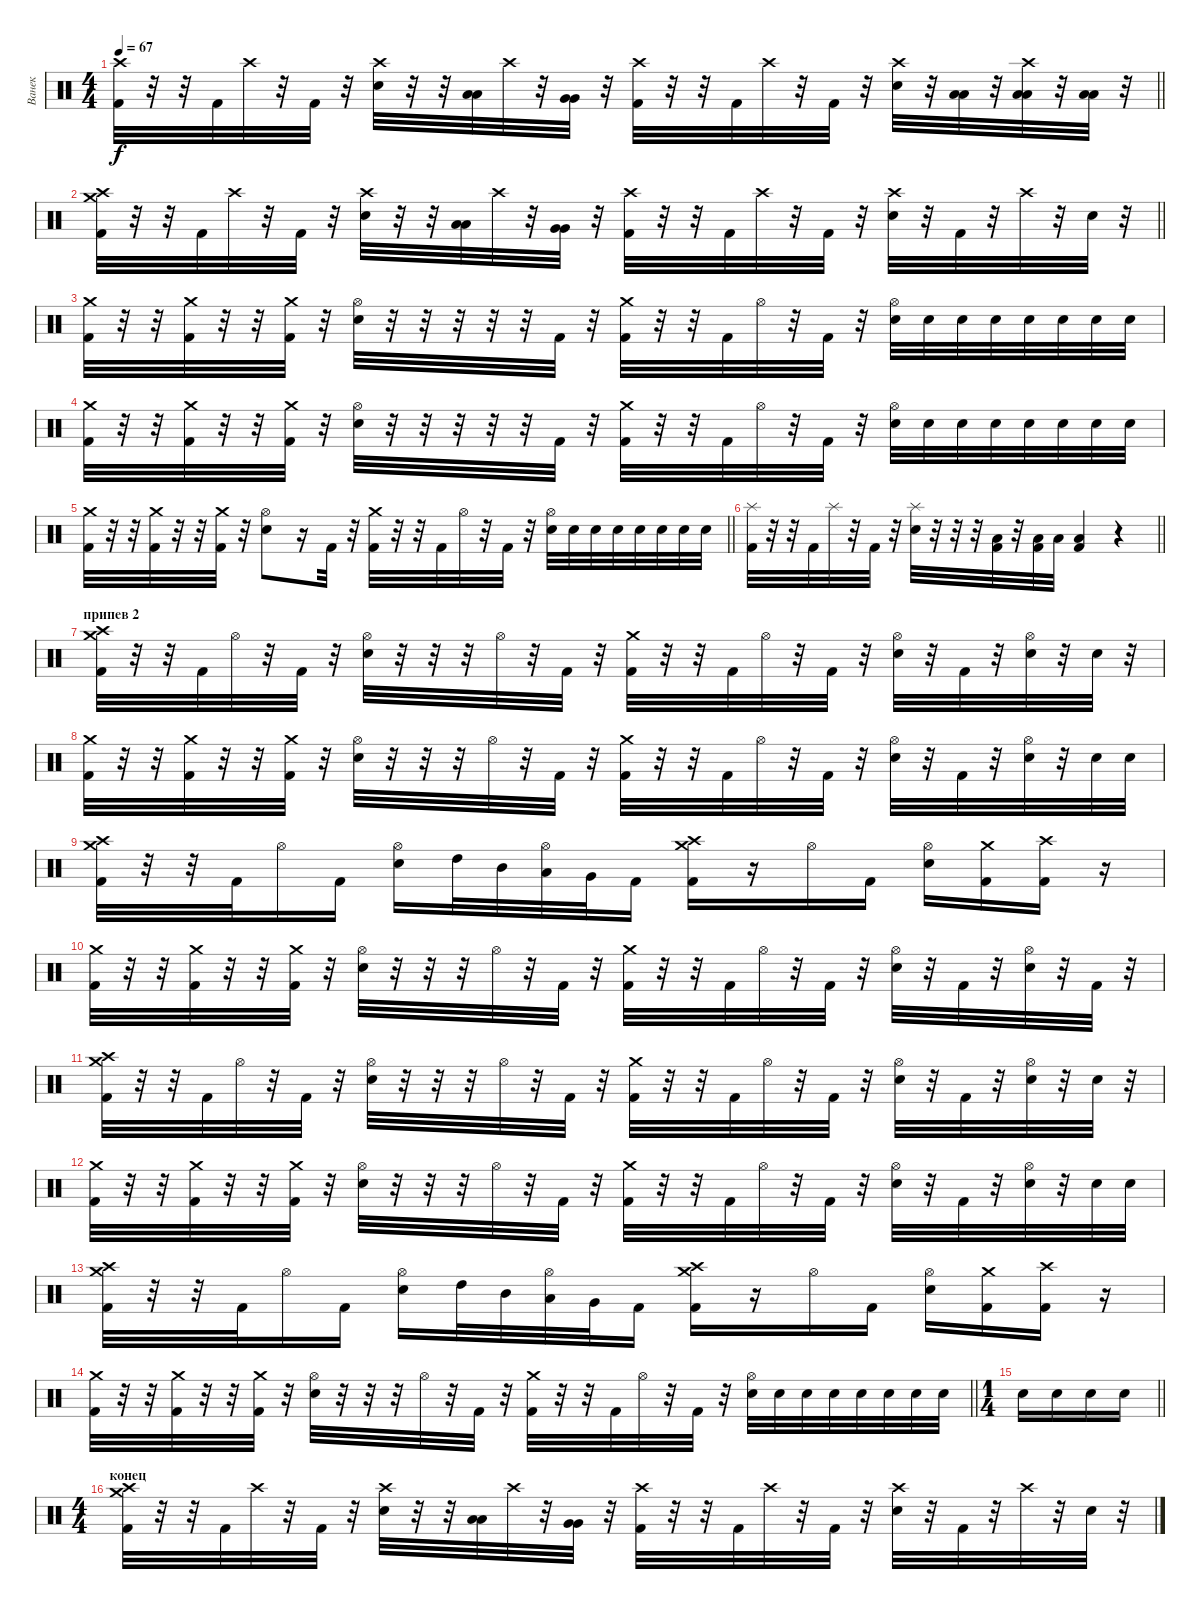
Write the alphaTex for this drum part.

\track ("Ванек" "Ванек") {instrument percussion}
\staff {score}
\articulation defaults
\ts (4 4)
\tempo 67
\clef neutral
\barLineRight lightlight
\ks c
("Crash high (hit)" "Kick (hit) 2").32{dy f} r.32 r.32 "Kick (hit) 2".32 "Crash high (hit)".32 r.32 "Kick (hit) 2".32 r.32 ("Crash high (hit)" "Snare (hit) 2").32 r.32 r.32 ("Low Tom (hit)" "Low Tom (hit)").32 "Crash high (hit)".32 r.32 ("Very Low Tom (hit)" "Very Low Tom (hit)").32 r.32 ("Crash high (hit)" "Kick (hit) 2").32 r.32 r.32 "Kick (hit) 2".32 "Crash high (hit)".32 r.32 "Kick (hit) 2".32 r.32 ("Crash high (hit)" "Snare (hit) 2").32 r.32 ("Low Tom (hit)" "Low Tom (hit)").32 r.32 ("Crash high (hit)" "Low Tom (hit)" "Low Tom (hit)").32 r.32 ("Low Tom (hit)" "Low Tom (hit)").32 r.32 |
\barLineRight lightlight
("Crash high (hit)" "Crash medium (hit)" "Kick (hit) 2").32 r.32 r.32 "Kick (hit) 2".32 "Crash high (hit)".32 r.32 "Kick (hit) 2".32 r.32 ("Crash high (hit)" "Snare (hit) 2").32 r.32 r.32 ("Low Tom (hit)" "Low Tom (hit)").32 "Crash high (hit)".32 r.32 ("Very Low Tom (hit)" "Very Low Tom (hit)").32 r.32 ("Crash high (hit)" "Kick (hit) 2").32 r.32 r.32 "Kick (hit) 2".32 "Crash high (hit)".32 r.32 "Kick (hit) 2".32 r.32 ("Crash high (hit)" "Snare (hit) 2").32 r.32 "Kick (hit) 2".32 r.32 "Crash high (hit)".32 r.32 "Snare (hit) 2".32 r.32 |
("Crash medium (hit)" "Kick (hit) 2").32 r.32 r.32 ("Crash medium (hit)" "Kick (hit) 2").32 r.32 r.32 ("Crash medium (hit)" "Kick (hit) 2").32 r.32 ("Hi-Hat (open)" "Snare (hit) 2").32 r.32 r.32 r.32 r.32 r.32 "Kick (hit) 2".32 r.32 ("Crash medium (hit)" "Kick (hit) 2").32 r.32 r.32 "Kick (hit) 2".32 "Hi-Hat (open)".32 r.32 "Kick (hit) 2".32 r.32 ("Hi-Hat (open)" "Snare (hit) 2").32 "Snare (hit) 2".32 "Snare (hit) 2".32 "Snare (hit) 2".32 "Snare (hit) 2".32 "Snare (hit) 2".32 "Snare (hit) 2".32 "Snare (hit) 2".32 |
("Crash medium (hit)" "Kick (hit) 2").32 r.32 r.32 ("Crash medium (hit)" "Kick (hit) 2").32 r.32 r.32 ("Crash medium (hit)" "Kick (hit) 2").32 r.32 ("Hi-Hat (open)" "Snare (hit) 2").32 r.32 r.32 r.32 r.32 r.32 "Kick (hit) 2".32 r.32 ("Crash medium (hit)" "Kick (hit) 2").32 r.32 r.32 "Kick (hit) 2".32 "Hi-Hat (open)".32 r.32 "Kick (hit) 2".32 r.32 ("Hi-Hat (open)" "Snare (hit) 2").32 "Snare (hit) 2".32 "Snare (hit) 2".32 "Snare (hit) 2".32 "Snare (hit) 2".32 "Snare (hit) 2".32 "Snare (hit) 2".32 "Snare (hit) 2".32 |
\barLineRight lightlight
("Crash medium (hit)" "Kick (hit) 2").32 r.32 r.32 ("Crash medium (hit)" "Kick (hit) 2").32 r.32 r.32 ("Crash medium (hit)" "Kick (hit) 2").32 r.32 ("Hi-Hat (open)" "Snare (hit) 2").8 r.16 "Kick (hit) 2".32 r.32 ("Crash medium (hit)" "Kick (hit) 2").32 r.32 r.32 "Kick (hit) 2".32 "Hi-Hat (open)".32 r.32 "Kick (hit) 2".32 r.32 ("Hi-Hat (open)" "Snare (hit) 2").32 "Snare (hit) 2".32 "Snare (hit) 2".32 "Snare (hit) 2".32 "Snare (hit) 2".32 "Snare (hit) 2".32 "Snare (hit) 2".32 "Snare (hit) 2".32 |
\barLineRight lightlight
("Splash (hit)" "Kick (hit) 2").32 r.32 r.32 "Kick (hit) 2".32 "Splash (hit)".32 r.32 "Kick (hit) 2".32 r.32 ("Splash (hit)" "Snare (hit) 2").32 r.32 r.32 r.32 ("Low Tom (hit)" "Kick (hit) 2").32 r.32 ("Low Tom (hit)" "Kick (hit) 2").32 "Low Tom (hit)".32 ("Low Tom (hit)" "Kick (hit) 2").4 r.4 |
\section ("" "припев 2")
("Crash high (hit)" "Crash medium (hit)" "Kick (hit) 2").32 r.32 r.32 "Kick (hit) 2".32 "Hi-Hat (open)".32 r.32 "Kick (hit) 2".32 r.32 ("Hi-Hat (open)" "Snare (hit) 2").32 r.32 r.32 r.32 "Hi-Hat (open)".32 r.32 "Kick (hit) 2".32 r.32 ("Crash medium (hit)" "Kick (hit) 2").32 r.32 r.32 "Kick (hit) 2".32 "Hi-Hat (open)".32 r.32 "Kick (hit) 2".32 r.32 ("Hi-Hat (open)" "Snare (hit) 2").32 r.32 "Kick (hit) 2".32 r.32 ("Hi-Hat (open)" "Snare (hit) 2").32 r.32 "Snare (hit) 2".32 r.32 |
("Crash medium (hit)" "Kick (hit) 2").32 r.32 r.32 ("Crash medium (hit)" "Kick (hit) 2").32 r.32 r.32 ("Crash medium (hit)" "Kick (hit) 2").32 r.32 ("Hi-Hat (open)" "Snare (hit) 2").32 r.32 r.32 r.32 "Hi-Hat (open)".32 r.32 "Kick (hit) 2".32 r.32 ("Crash medium (hit)" "Kick (hit) 2").32 r.32 r.32 "Kick (hit) 2".32 "Hi-Hat (open)".32 r.32 "Kick (hit) 2".32 r.32 ("Hi-Hat (open)" "Snare (hit) 2").32 r.32 "Kick (hit) 2".32 r.32 ("Hi-Hat (open)" "Snare (hit) 2").32 r.32 "Snare (hit) 2".32 "Snare (hit) 2".32 |
("Crash medium (hit)" "Crash high (hit)" "Kick (hit) 2").32 r.32 r.32 "Kick (hit) 2".32 "Hi-Hat (open)".16 "Kick (hit) 2".16 ("Hi-Hat (open)" "Snare (hit) 2").16 "High Tom (hit)".32 "Mid Tom (hit)".32 ("Hi-Hat (open)" "Low Tom (hit)").32 "Very Low Tom (hit)".32 "Kick (hit) 2".16 ("Crash medium (hit)" "Crash high (hit)" "Kick (hit) 2").16 r.16 "Hi-Hat (open)".16 "Kick (hit) 2".16 ("Hi-Hat (open)" "Snare (hit) 2").16 ("Crash medium (hit)" "Kick (hit) 2").16 ("Crash high (hit)" "Kick (hit) 2").16 r.16 |
("Crash medium (hit)" "Kick (hit) 2").32 r.32 r.32 ("Crash medium (hit)" "Kick (hit) 2").32 r.32 r.32 ("Crash medium (hit)" "Kick (hit) 2").32 r.32 ("Hi-Hat (open)" "Snare (hit) 2").32 r.32 r.32 r.32 "Hi-Hat (open)".32 r.32 "Kick (hit) 2".32 r.32 ("Crash medium (hit)" "Kick (hit) 2").32 r.32 r.32 "Kick (hit) 2".32 "Hi-Hat (open)".32 r.32 "Kick (hit) 2".32 r.32 ("Hi-Hat (open)" "Snare (hit) 2").32 r.32 "Kick (hit) 2".32 r.32 ("Hi-Hat (open)" "Snare (hit) 2").32 r.32 "Kick (hit) 2".32 r.32 |
("Crash high (hit)" "Crash medium (hit)" "Kick (hit) 2").32 r.32 r.32 "Kick (hit) 2".32 "Hi-Hat (open)".32 r.32 "Kick (hit) 2".32 r.32 ("Hi-Hat (open)" "Snare (hit) 2").32 r.32 r.32 r.32 "Hi-Hat (open)".32 r.32 "Kick (hit) 2".32 r.32 ("Crash medium (hit)" "Kick (hit) 2").32 r.32 r.32 "Kick (hit) 2".32 "Hi-Hat (open)".32 r.32 "Kick (hit) 2".32 r.32 ("Hi-Hat (open)" "Snare (hit) 2").32 r.32 "Kick (hit) 2".32 r.32 ("Hi-Hat (open)" "Snare (hit) 2").32 r.32 "Snare (hit) 2".32 r.32 |
("Crash medium (hit)" "Kick (hit) 2").32 r.32 r.32 ("Crash medium (hit)" "Kick (hit) 2").32 r.32 r.32 ("Crash medium (hit)" "Kick (hit) 2").32 r.32 ("Hi-Hat (open)" "Snare (hit) 2").32 r.32 r.32 r.32 "Hi-Hat (open)".32 r.32 "Kick (hit) 2".32 r.32 ("Crash medium (hit)" "Kick (hit) 2").32 r.32 r.32 "Kick (hit) 2".32 "Hi-Hat (open)".32 r.32 "Kick (hit) 2".32 r.32 ("Hi-Hat (open)" "Snare (hit) 2").32 r.32 "Kick (hit) 2".32 r.32 ("Hi-Hat (open)" "Snare (hit) 2").32 r.32 "Snare (hit) 2".32 "Snare (hit) 2".32 |
("Crash medium (hit)" "Crash high (hit)" "Kick (hit) 2").32 r.32 r.32 "Kick (hit) 2".32 "Hi-Hat (open)".16 "Kick (hit) 2".16 ("Hi-Hat (open)" "Snare (hit) 2").16 "High Tom (hit)".32 "Mid Tom (hit)".32 ("Hi-Hat (open)" "Low Tom (hit)").32 "Very Low Tom (hit)".32 "Kick (hit) 2".16 ("Crash medium (hit)" "Crash high (hit)" "Kick (hit) 2").16 r.16 "Hi-Hat (open)".16 "Kick (hit) 2".16 ("Hi-Hat (open)" "Snare (hit) 2").16 ("Crash medium (hit)" "Kick (hit) 2").16 ("Crash high (hit)" "Kick (hit) 2").16 r.16 |
\barLineRight lightlight
("Crash medium (hit)" "Kick (hit) 2").32 r.32 r.32 ("Crash medium (hit)" "Kick (hit) 2").32 r.32 r.32 ("Crash medium (hit)" "Kick (hit) 2").32 r.32 ("Hi-Hat (open)" "Snare (hit) 2").32 r.32 r.32 r.32 "Hi-Hat (open)".32 r.32 "Kick (hit) 2".32 r.32 ("Crash medium (hit)" "Kick (hit) 2").32 r.32 r.32 "Kick (hit) 2".32 "Hi-Hat (open)".32 r.32 "Kick (hit) 2".32 r.32 ("Hi-Hat (open)" "Snare (hit) 2").32 "Snare (hit) 2".32 "Snare (hit) 2".32 "Snare (hit) 2".32 "Snare (hit) 2".32 "Snare (hit) 2".32 "Snare (hit) 2".32 "Snare (hit) 2".32 |
\ts (1 4)
\barLineRight lightlight "Snare (hit) 2".16 "Snare (hit) 2".16 "Snare (hit) 2".16 "Snare (hit) 2".16
|
\ts (4 4)
\section ("" "конец")
("Crash high (hit)" "Crash medium (hit)" "Kick (hit) 2").32 r.32 r.32 "Kick (hit) 2".32 "Crash high (hit)".32 r.32 "Kick (hit) 2".32 r.32 ("Crash high (hit)" "Snare (hit) 2").32 r.32 r.32 ("Low Tom (hit)" "Low Tom (hit)").32 "Crash high (hit)".32 r.32 ("Very Low Tom (hit)" "Very Low Tom (hit)").32 r.32 ("Crash high (hit)" "Kick (hit) 2").32 r.32 r.32 "Kick (hit) 2".32 "Crash high (hit)".32 r.32 "Kick (hit) 2".32 r.32 ("Crash high (hit)" "Snare (hit) 2").32 r.32 "Kick (hit) 2".32 r.32 "Crash high (hit)".32 r.32 "Snare (hit) 2".32 r.32
